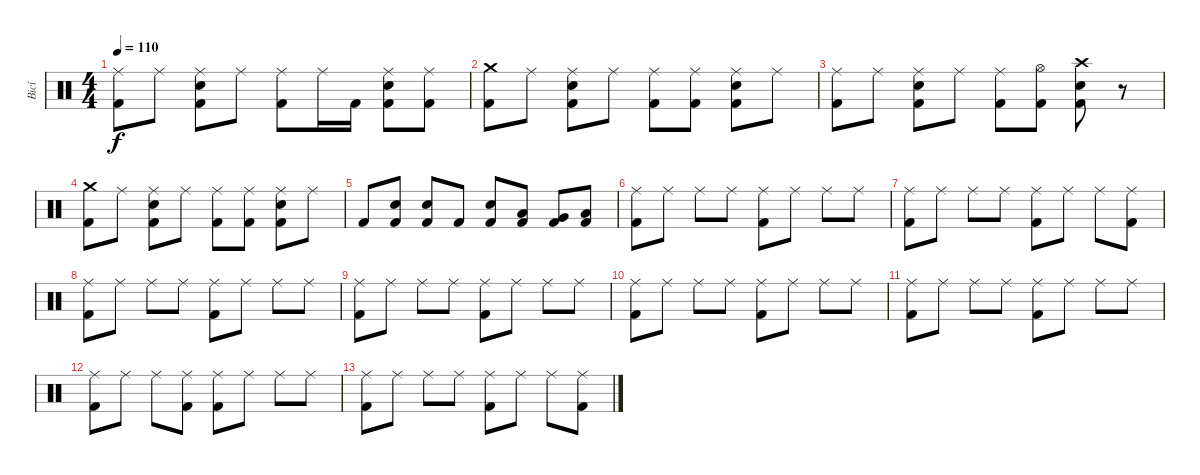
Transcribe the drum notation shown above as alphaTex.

\track ("Bicí" "Bicí") {instrument percussion}
\staff {score}
\articulation defaults
\ts (4 4)
\tempo 110
\clef neutral
\ks c
("Ride (middle)" "Kick (hit) 2").8{dy f} "Ride (middle)".8 ("Ride (middle)" "Electric Snare (hit)" "Kick (hit) 2").8 "Ride (middle)".8 ("Ride (middle)" "Kick (hit) 2").8 "Ride (middle)".16 "Kick (hit) 2".16 ("Ride (middle)" "Electric Snare (hit)" "Kick (hit) 2").8 ("Ride (middle)" "Kick (hit) 2").8 |
("Crash medium (hit)" "Kick (hit) 2").8 "Ride (middle)".8 ("Ride (middle)" "Electric Snare (hit)" "Kick (hit) 2").8 "Ride (middle)".8 ("Ride (middle)" "Kick (hit) 2").8 ("Ride (middle)" "Kick (hit) 2").8 ("Ride (middle)" "Electric Snare (hit)" "Kick (hit) 2").8 "Ride (middle)".8 |
("Ride (middle)" "Kick (hit) 2").8 "Ride (middle)".8 ("Ride (middle)" "Electric Snare (hit)" "Kick (hit) 2").8 "Ride (middle)".8 ("Ride (middle)" "Kick (hit) 2").8 ("Hi-Hat (open)" "Kick (hit) 2").8 ("Crash high (hit)" "Electric Snare (hit)" "Kick (hit) 2").8 r.8 |
("Crash medium (hit)" "Kick (hit) 2").8 "Ride (middle)".8 ("Ride (middle)" "Electric Snare (hit)" "Kick (hit) 2").8 "Ride (middle)".8 ("Ride (middle)" "Kick (hit) 2").8 ("Ride (middle)" "Kick (hit) 2").8 ("Ride (middle)" "Electric Snare (hit)" "Kick (hit) 2").8 "Ride (middle)".8 |
"Kick (hit) 2".8 ("Electric Snare (hit)" "Kick (hit) 2").8 ("Electric Snare (hit)" "Kick (hit) 2").8 "Kick (hit) 2".8 ("Electric Snare (hit)" "Kick (hit) 2").8 ("Low Tom (hit)" "Kick (hit) 2").8 ("Very Low Tom (hit)" "Kick (hit) 2").8 ("Low Floor Tom (hit)" "Kick (hit) 2").8 |
("Ride (middle)" "Kick (hit) 2").8 "Ride (middle)".8 "Ride (middle)".8 "Ride (middle)".8 ("Ride (middle)" "Kick (hit) 2").8 "Ride (middle)".8 "Ride (middle)".8 "Ride (middle)".8 |
("Ride (middle)" "Kick (hit) 2").8 "Ride (middle)".8 "Ride (middle)".8 "Ride (middle)".8 ("Ride (middle)" "Kick (hit) 2").8 "Ride (middle)".8 "Ride (middle)".8 ("Ride (middle)" "Kick (hit) 2").8 |
("Ride (middle)" "Kick (hit) 2").8 "Ride (middle)".8 "Ride (middle)".8 "Ride (middle)".8 ("Ride (middle)" "Kick (hit) 2").8 "Ride (middle)".8 "Ride (middle)".8 "Ride (middle)".8 |
("Ride (middle)" "Kick (hit) 2").8 "Ride (middle)".8 "Ride (middle)".8 "Ride (middle)".8 ("Ride (middle)" "Kick (hit) 2").8 "Ride (middle)".8 "Ride (middle)".8 "Ride (middle)".8 |
("Ride (middle)" "Kick (hit) 2").8 "Ride (middle)".8 "Ride (middle)".8 "Ride (middle)".8 ("Ride (middle)" "Kick (hit) 2").8 "Ride (middle)".8 "Ride (middle)".8 "Ride (middle)".8 |
("Ride (middle)" "Kick (hit) 2").8 "Ride (middle)".8 "Ride (middle)".8 "Ride (middle)".8 ("Ride (middle)" "Kick (hit) 2").8 "Ride (middle)".8 "Ride (middle)".8 "Ride (middle)".8 |
("Ride (middle)" "Kick (hit) 2").8 "Ride (middle)".8 "Ride (middle)".8 ("Ride (middle)" "Kick (hit) 2").8 ("Ride (middle)" "Kick (hit) 2").8 "Ride (middle)".8 "Ride (middle)".8 "Ride (middle)".8 |
("Ride (middle)" "Kick (hit) 2").8 "Ride (middle)".8 "Ride (middle)".8 "Ride (middle)".8 ("Ride (middle)" "Kick (hit) 2").8 "Ride (middle)".8 "Ride (middle)".8 ("Ride (middle)" "Kick (hit) 2").8
